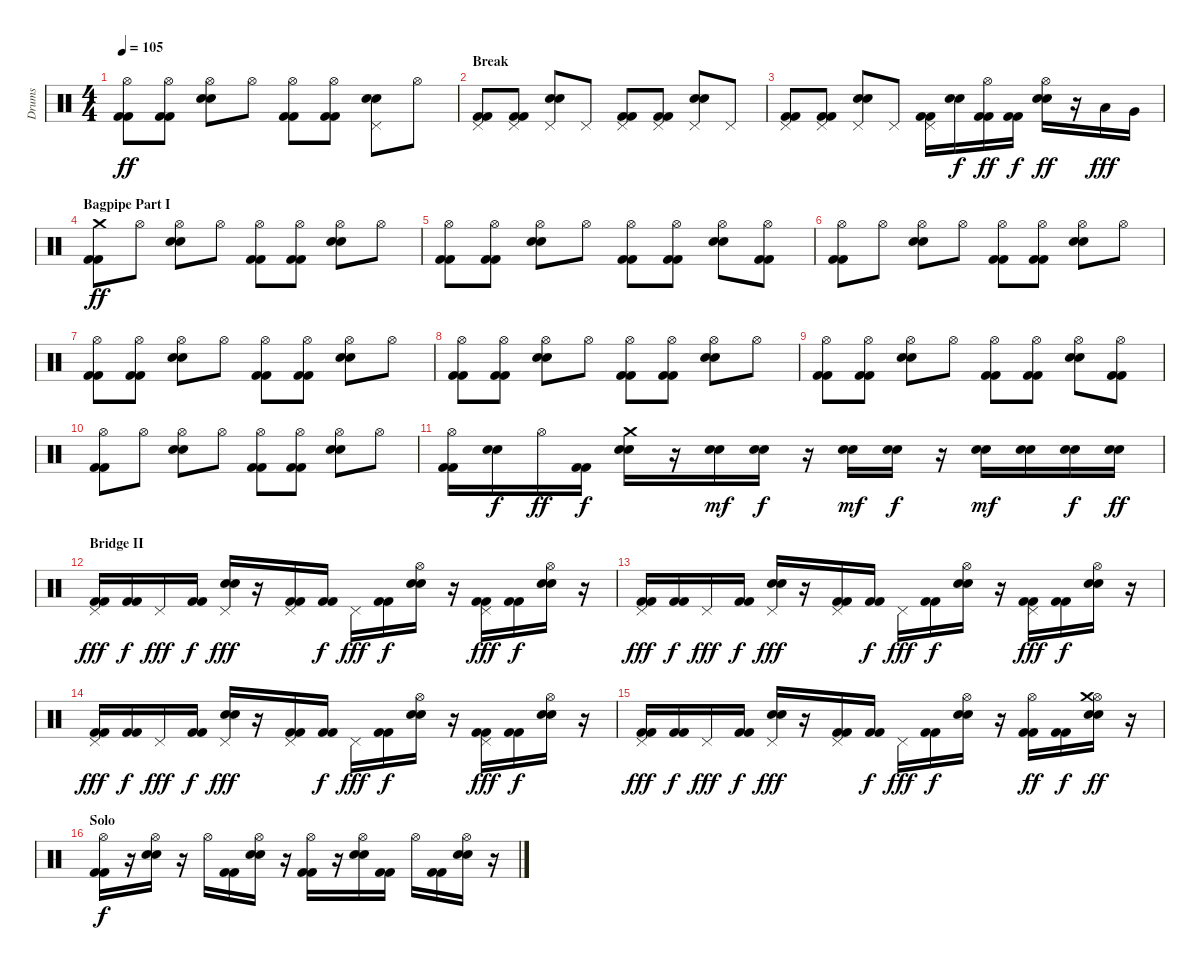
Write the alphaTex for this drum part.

\track ("Drums" "Drums") {instrument percussion}
\staff {score}
\articulation defaults
\ts (4 4)
\tempo 105
\clef neutral
\ks c
("Hi-Hat (open)" "Kick (hit) 2" "Kick (hit) 2").8{dy ff} ("Hi-Hat (open)" "Kick (hit) 2" "Kick (hit) 2").8 ("Hi-Hat (open)" "Electric Snare (hit)" "Snare (hit) 2").8 "Hi-Hat (open)".8 ("Hi-Hat (open)" "Kick (hit) 2" "Kick (hit) 2").8 ("Hi-Hat (open)" "Kick (hit) 2" "Kick (hit) 2").8 ("Pedal Hi-Hat (hit)" "Electric Snare (hit)" "Snare (hit) 2").8 "Hi-Hat (open)".8 |
\section ("" "Break")
("Pedal Hi-Hat (hit)" "Kick (hit) 2" "Kick (hit) 2").8 ("Pedal Hi-Hat (hit)" "Kick (hit) 2" "Kick (hit) 2").8 ("Pedal Hi-Hat (hit)" "Electric Snare (hit)" "Snare (hit) 2").8 "Pedal Hi-Hat (hit)".8 ("Pedal Hi-Hat (hit)" "Kick (hit) 2" "Kick (hit) 2").8 ("Pedal Hi-Hat (hit)" "Kick (hit) 2" "Kick (hit) 2").8 ("Pedal Hi-Hat (hit)" "Electric Snare (hit)" "Snare (hit) 2").8 "Pedal Hi-Hat (hit)".8 |
("Pedal Hi-Hat (hit)" "Kick (hit) 2" "Kick (hit) 2").8 ("Pedal Hi-Hat (hit)" "Kick (hit) 2" "Kick (hit) 2").8 ("Pedal Hi-Hat (hit)" "Electric Snare (hit)" "Snare (hit) 2").8 "Pedal Hi-Hat (hit)".8 ("Pedal Hi-Hat (hit)" "Kick (hit) 2" "Kick (hit) 2").16 ("Electric Snare (hit)" "Snare (hit) 2").16{dy f} ("Hi-Hat (open)" "Kick (hit) 2" "Kick (hit) 2").16{dy ff} ("Kick (hit) 2" "Kick (hit) 2").16{dy f} ("Hi-Hat (open)" "Electric Snare (hit)" "Snare (hit) 2").16{dy ff} r.16 "Low Tom (hit)".16{dy fff} "Very Low Tom (hit)".16 |
\section ("" "Bagpipe Part I")
("Crash medium (hit)" "Kick (hit) 2" "Kick (hit) 2").8{dy ff} "Hi-Hat (open)".8 ("Hi-Hat (open)" "Electric Snare (hit)" "Snare (hit) 2").8 "Hi-Hat (open)".8 ("Hi-Hat (open)" "Kick (hit) 2" "Kick (hit) 2").8 ("Hi-Hat (open)" "Kick (hit) 2" "Kick (hit) 2").8 ("Hi-Hat (open)" "Electric Snare (hit)" "Snare (hit) 2").8 "Hi-Hat (open)".8 |
("Hi-Hat (open)" "Kick (hit) 2" "Kick (hit) 2").8 ("Hi-Hat (open)" "Kick (hit) 2" "Kick (hit) 2").8 ("Hi-Hat (open)" "Electric Snare (hit)" "Snare (hit) 2").8 "Hi-Hat (open)".8 ("Hi-Hat (open)" "Kick (hit) 2" "Kick (hit) 2").8 ("Hi-Hat (open)" "Kick (hit) 2" "Kick (hit) 2").8 ("Hi-Hat (open)" "Electric Snare (hit)" "Snare (hit) 2").8 ("Hi-Hat (open)" "Kick (hit) 2" "Kick (hit) 2").8 |
("Hi-Hat (open)" "Kick (hit) 2" "Kick (hit) 2").8 "Hi-Hat (open)".8 ("Hi-Hat (open)" "Electric Snare (hit)" "Snare (hit) 2").8 "Hi-Hat (open)".8 ("Hi-Hat (open)" "Kick (hit) 2" "Kick (hit) 2").8 ("Hi-Hat (open)" "Kick (hit) 2" "Kick (hit) 2").8 ("Hi-Hat (open)" "Electric Snare (hit)" "Snare (hit) 2").8 "Hi-Hat (open)".8 |
("Hi-Hat (open)" "Kick (hit) 2" "Kick (hit) 2").8 ("Hi-Hat (open)" "Kick (hit) 2" "Kick (hit) 2").8 ("Hi-Hat (open)" "Electric Snare (hit)" "Snare (hit) 2").8 "Hi-Hat (open)".8 ("Hi-Hat (open)" "Kick (hit) 2" "Kick (hit) 2").8 ("Hi-Hat (open)" "Kick (hit) 2" "Kick (hit) 2").8 ("Hi-Hat (open)" "Electric Snare (hit)" "Snare (hit) 2").8 "Hi-Hat (open)".8 |
("Hi-Hat (open)" "Kick (hit) 2" "Kick (hit) 2").8 ("Hi-Hat (open)" "Kick (hit) 2" "Kick (hit) 2").8 ("Hi-Hat (open)" "Electric Snare (hit)" "Snare (hit) 2").8 "Hi-Hat (open)".8 ("Hi-Hat (open)" "Kick (hit) 2" "Kick (hit) 2").8 ("Hi-Hat (open)" "Kick (hit) 2" "Kick (hit) 2").8 ("Hi-Hat (open)" "Electric Snare (hit)" "Snare (hit) 2").8 "Hi-Hat (open)".8 |
("Hi-Hat (open)" "Kick (hit) 2" "Kick (hit) 2").8 ("Hi-Hat (open)" "Kick (hit) 2" "Kick (hit) 2").8 ("Hi-Hat (open)" "Electric Snare (hit)" "Snare (hit) 2").8 "Hi-Hat (open)".8 ("Hi-Hat (open)" "Kick (hit) 2" "Kick (hit) 2").8 ("Hi-Hat (open)" "Kick (hit) 2" "Kick (hit) 2").8 ("Hi-Hat (open)" "Electric Snare (hit)" "Snare (hit) 2").8 ("Hi-Hat (open)" "Kick (hit) 2" "Kick (hit) 2").8 |
("Hi-Hat (open)" "Kick (hit) 2" "Kick (hit) 2").8 "Hi-Hat (open)".8 ("Hi-Hat (open)" "Electric Snare (hit)" "Snare (hit) 2").8 "Hi-Hat (open)".8 ("Hi-Hat (open)" "Kick (hit) 2" "Kick (hit) 2").8 ("Hi-Hat (open)" "Kick (hit) 2" "Kick (hit) 2").8 ("Hi-Hat (open)" "Electric Snare (hit)" "Snare (hit) 2").8 "Hi-Hat (open)".8 |
("Hi-Hat (open)" "Kick (hit) 2" "Kick (hit) 2").16 ("Electric Snare (hit)" "Snare (hit) 2").16{dy f} "Hi-Hat (open)".16{dy ff} ("Kick (hit) 2" "Kick (hit) 2").16{dy f} ("Crash medium (hit)" "Electric Snare (hit)" "Snare (hit) 2").16 r.16 ("Electric Snare (hit)" "Snare (hit) 2").16{dy mf} ("Electric Snare (hit)" "Snare (hit) 2").16{dy f} r.16 ("Electric Snare (hit)" "Snare (hit) 2").16{dy mf} ("Electric Snare (hit)" "Snare (hit) 2").16{dy f} r.16 ("Electric Snare (hit)" "Snare (hit) 2").16{dy mf} ("Electric Snare (hit)" "Snare (hit) 2").16 ("Electric Snare (hit)" "Snare (hit) 2").16{dy f} ("Electric Snare (hit)" "Snare (hit) 2").16{dy ff} |
\section ("" "Bridge II")
("Pedal Hi-Hat (hit)" "Kick (hit) 2" "Kick (hit) 2").16{dy fff} ("Kick (hit) 2" "Kick (hit) 2").16{dy f} "Pedal Hi-Hat (hit)".16{dy fff} ("Kick (hit) 2" "Kick (hit) 2").16{dy f} ("Pedal Hi-Hat (hit)" "Electric Snare (hit)" "Snare (hit) 2").16{dy fff} r.16 ("Pedal Hi-Hat (hit)" "Kick (hit) 2" "Kick (hit) 2").16 ("Kick (hit) 2" "Kick (hit) 2").16{dy f} "Pedal Hi-Hat (hit)".16{dy fff} ("Kick (hit) 2" "Kick (hit) 2").16{dy f} ("Hi-Hat (open)" "Electric Snare (hit)" "Snare (hit) 2").16 r.16 ("Pedal Hi-Hat (hit)" "Kick (hit) 2" "Kick (hit) 2").16{dy fff} ("Kick (hit) 2" "Kick (hit) 2").16{dy f} ("Hi-Hat (open)" "Electric Snare (hit)" "Snare (hit) 2").16 r.16 |
("Pedal Hi-Hat (hit)" "Kick (hit) 2" "Kick (hit) 2").16{dy fff} ("Kick (hit) 2" "Kick (hit) 2").16{dy f} "Pedal Hi-Hat (hit)".16{dy fff} ("Kick (hit) 2" "Kick (hit) 2").16{dy f} ("Pedal Hi-Hat (hit)" "Electric Snare (hit)" "Snare (hit) 2").16{dy fff} r.16 ("Pedal Hi-Hat (hit)" "Kick (hit) 2" "Kick (hit) 2").16 ("Kick (hit) 2" "Kick (hit) 2").16{dy f} "Pedal Hi-Hat (hit)".16{dy fff} ("Kick (hit) 2" "Kick (hit) 2").16{dy f} ("Hi-Hat (open)" "Electric Snare (hit)" "Snare (hit) 2").16 r.16 ("Pedal Hi-Hat (hit)" "Kick (hit) 2" "Kick (hit) 2").16{dy fff} ("Kick (hit) 2" "Kick (hit) 2").16{dy f} ("Hi-Hat (open)" "Electric Snare (hit)" "Snare (hit) 2").16 r.16 |
("Pedal Hi-Hat (hit)" "Kick (hit) 2" "Kick (hit) 2").16{dy fff} ("Kick (hit) 2" "Kick (hit) 2").16{dy f} "Pedal Hi-Hat (hit)".16{dy fff} ("Kick (hit) 2" "Kick (hit) 2").16{dy f} ("Pedal Hi-Hat (hit)" "Electric Snare (hit)" "Snare (hit) 2").16{dy fff} r.16 ("Pedal Hi-Hat (hit)" "Kick (hit) 2" "Kick (hit) 2").16 ("Kick (hit) 2" "Kick (hit) 2").16{dy f} "Pedal Hi-Hat (hit)".16{dy fff} ("Kick (hit) 2" "Kick (hit) 2").16{dy f} ("Hi-Hat (open)" "Electric Snare (hit)" "Snare (hit) 2").16 r.16 ("Pedal Hi-Hat (hit)" "Kick (hit) 2" "Kick (hit) 2").16{dy fff} ("Kick (hit) 2" "Kick (hit) 2").16{dy f} ("Hi-Hat (open)" "Electric Snare (hit)" "Snare (hit) 2").16 r.16 |
("Pedal Hi-Hat (hit)" "Kick (hit) 2" "Kick (hit) 2").16{dy fff} ("Kick (hit) 2" "Kick (hit) 2").16{dy f} "Pedal Hi-Hat (hit)".16{dy fff} ("Kick (hit) 2" "Kick (hit) 2").16{dy f} ("Pedal Hi-Hat (hit)" "Electric Snare (hit)" "Snare (hit) 2").16{dy fff} r.16 ("Pedal Hi-Hat (hit)" "Kick (hit) 2" "Kick (hit) 2").16 ("Kick (hit) 2" "Kick (hit) 2").16{dy f} "Pedal Hi-Hat (hit)".16{dy fff} ("Kick (hit) 2" "Kick (hit) 2").16{dy f} ("Hi-Hat (open)" "Electric Snare (hit)" "Snare (hit) 2").16 r.16 ("Hi-Hat (open)" "Kick (hit) 2" "Kick (hit) 2").16{dy ff} ("Kick (hit) 2" "Kick (hit) 2").16{dy f} ("Hi-Hat (open)" "Crash medium (hit)" "Electric Snare (hit)" "Snare (hit) 2").16{dy ff} r.16 |
\section ("" "Solo")
("Hi-Hat (open)" "Kick (hit) 2" "Kick (hit) 2").16{dy f} r.16 ("Hi-Hat (open)" "Electric Snare (hit)" "Snare (hit) 2").16 r.16 "Hi-Hat (open)".16 ("Kick (hit) 2" "Kick (hit) 2").16 ("Hi-Hat (open)" "Electric Snare (hit)" "Snare (hit) 2").16 r.16 ("Hi-Hat (open)" "Kick (hit) 2" "Kick (hit) 2").16 r.16 ("Hi-Hat (open)" "Electric Snare (hit)" "Snare (hit) 2").16 ("Kick (hit) 2" "Kick (hit) 2").16 "Hi-Hat (open)".16 ("Kick (hit) 2" "Kick (hit) 2").16 ("Hi-Hat (open)" "Electric Snare (hit)" "Snare (hit) 2").16 r.16
